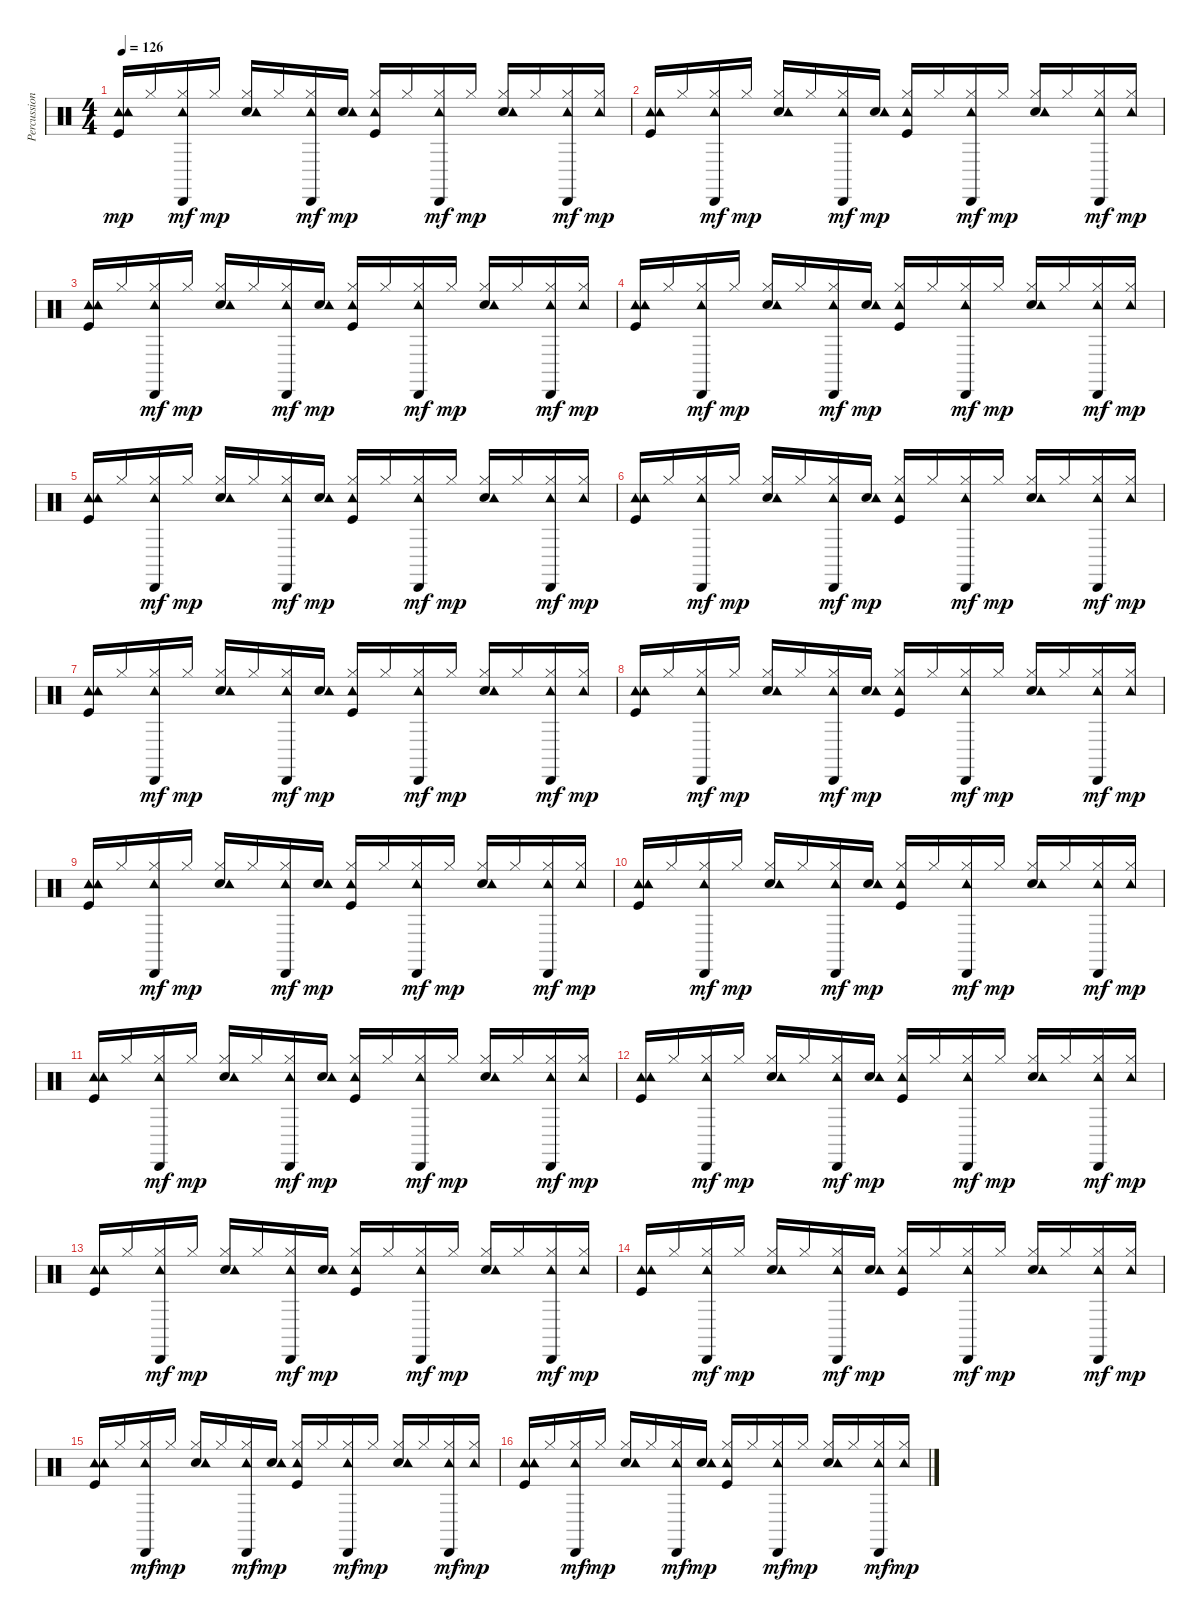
\track ("Percussion" "Percussion") {instrument percussion}
\staff {score}
\articulation defaults
\ts (4 4)
\tempo 126
\clef neutral
\ks c
("Kick (hit)" "Tambourine (hit)" "Tambourine (hit)").16{dy mp} "Hi-Hat (closed)".16 ("Hi-Hat (closed)" "Tambourine (hit)" "Cabasa (hit)").16{dy mf} "Hi-Hat (closed)".16{dy mp} ("Snare (hit) 2" "Hi-Hat (closed)" "Tambourine (hit)").16 "Hi-Hat (closed)".16 ("Hi-Hat (closed)" "Tambourine (hit)" "Cabasa (hit)").16{dy mf} ("Snare (hit) 2" "Tambourine (hit)").16{dy mp} ("Kick (hit)" "Hi-Hat (closed)" "Tambourine (hit)").16 "Hi-Hat (closed)".16 ("Hi-Hat (closed)" "Tambourine (hit)" "Cabasa (hit)").16{dy mf} "Hi-Hat (closed)".16{dy mp} ("Snare (hit) 2" "Hi-Hat (closed)" "Tambourine (hit)").16 "Hi-Hat (closed)".16 ("Hi-Hat (closed)" "Tambourine (hit)" "Cabasa (hit)").16{dy mf} ("Hi-Hat (closed)" "Tambourine (hit)").16{dy mp} |
("Kick (hit)" "Tambourine (hit)" "Tambourine (hit)").16 "Hi-Hat (closed)".16 ("Hi-Hat (closed)" "Tambourine (hit)" "Cabasa (hit)").16{dy mf} "Hi-Hat (closed)".16{dy mp} ("Snare (hit) 2" "Hi-Hat (closed)" "Tambourine (hit)").16 "Hi-Hat (closed)".16 ("Hi-Hat (closed)" "Tambourine (hit)" "Cabasa (hit)").16{dy mf} ("Snare (hit) 2" "Tambourine (hit)").16{dy mp} ("Kick (hit)" "Hi-Hat (closed)" "Tambourine (hit)").16 "Hi-Hat (closed)".16 ("Hi-Hat (closed)" "Tambourine (hit)" "Cabasa (hit)").16{dy mf} "Hi-Hat (closed)".16{dy mp} ("Snare (hit) 2" "Hi-Hat (closed)" "Tambourine (hit)").16 "Hi-Hat (closed)".16 ("Hi-Hat (closed)" "Tambourine (hit)" "Cabasa (hit)").16{dy mf} ("Hi-Hat (closed)" "Tambourine (hit)").16{dy mp} |
("Kick (hit)" "Tambourine (hit)" "Tambourine (hit)").16 "Hi-Hat (closed)".16 ("Hi-Hat (closed)" "Tambourine (hit)" "Cabasa (hit)").16{dy mf} "Hi-Hat (closed)".16{dy mp} ("Snare (hit) 2" "Hi-Hat (closed)" "Tambourine (hit)").16 "Hi-Hat (closed)".16 ("Hi-Hat (closed)" "Tambourine (hit)" "Cabasa (hit)").16{dy mf} ("Snare (hit) 2" "Tambourine (hit)").16{dy mp} ("Kick (hit)" "Hi-Hat (closed)" "Tambourine (hit)").16 "Hi-Hat (closed)".16 ("Hi-Hat (closed)" "Tambourine (hit)" "Cabasa (hit)").16{dy mf} "Hi-Hat (closed)".16{dy mp} ("Snare (hit) 2" "Hi-Hat (closed)" "Tambourine (hit)").16 "Hi-Hat (closed)".16 ("Hi-Hat (closed)" "Tambourine (hit)" "Cabasa (hit)").16{dy mf} ("Hi-Hat (closed)" "Tambourine (hit)").16{dy mp} |
("Kick (hit)" "Tambourine (hit)" "Tambourine (hit)").16 "Hi-Hat (closed)".16 ("Hi-Hat (closed)" "Tambourine (hit)" "Cabasa (hit)").16{dy mf} "Hi-Hat (closed)".16{dy mp} ("Snare (hit) 2" "Hi-Hat (closed)" "Tambourine (hit)").16 "Hi-Hat (closed)".16 ("Hi-Hat (closed)" "Tambourine (hit)" "Cabasa (hit)").16{dy mf} ("Snare (hit) 2" "Tambourine (hit)").16{dy mp} ("Kick (hit)" "Hi-Hat (closed)" "Tambourine (hit)").16 "Hi-Hat (closed)".16 ("Hi-Hat (closed)" "Tambourine (hit)" "Cabasa (hit)").16{dy mf} "Hi-Hat (closed)".16{dy mp} ("Snare (hit) 2" "Hi-Hat (closed)" "Tambourine (hit)").16 "Hi-Hat (closed)".16 ("Hi-Hat (closed)" "Tambourine (hit)" "Cabasa (hit)").16{dy mf} ("Hi-Hat (closed)" "Tambourine (hit)").16{dy mp} |
("Kick (hit)" "Tambourine (hit)" "Tambourine (hit)").16 "Hi-Hat (closed)".16 ("Hi-Hat (closed)" "Tambourine (hit)" "Cabasa (hit)").16{dy mf} "Hi-Hat (closed)".16{dy mp} ("Snare (hit) 2" "Hi-Hat (closed)" "Tambourine (hit)").16 "Hi-Hat (closed)".16 ("Hi-Hat (closed)" "Tambourine (hit)" "Cabasa (hit)").16{dy mf} ("Snare (hit) 2" "Tambourine (hit)").16{dy mp} ("Kick (hit)" "Hi-Hat (closed)" "Tambourine (hit)").16 "Hi-Hat (closed)".16 ("Hi-Hat (closed)" "Tambourine (hit)" "Cabasa (hit)").16{dy mf} "Hi-Hat (closed)".16{dy mp} ("Snare (hit) 2" "Hi-Hat (closed)" "Tambourine (hit)").16 "Hi-Hat (closed)".16 ("Hi-Hat (closed)" "Tambourine (hit)" "Cabasa (hit)").16{dy mf} ("Hi-Hat (closed)" "Tambourine (hit)").16{dy mp} |
("Kick (hit)" "Tambourine (hit)" "Tambourine (hit)").16 "Hi-Hat (closed)".16 ("Hi-Hat (closed)" "Tambourine (hit)" "Cabasa (hit)").16{dy mf} "Hi-Hat (closed)".16{dy mp} ("Snare (hit) 2" "Hi-Hat (closed)" "Tambourine (hit)").16 "Hi-Hat (closed)".16 ("Hi-Hat (closed)" "Tambourine (hit)" "Cabasa (hit)").16{dy mf} ("Snare (hit) 2" "Tambourine (hit)").16{dy mp} ("Kick (hit)" "Hi-Hat (closed)" "Tambourine (hit)").16 "Hi-Hat (closed)".16 ("Hi-Hat (closed)" "Tambourine (hit)" "Cabasa (hit)").16{dy mf} "Hi-Hat (closed)".16{dy mp} ("Snare (hit) 2" "Hi-Hat (closed)" "Tambourine (hit)").16 "Hi-Hat (closed)".16 ("Hi-Hat (closed)" "Tambourine (hit)" "Cabasa (hit)").16{dy mf} ("Hi-Hat (closed)" "Tambourine (hit)").16{dy mp} |
("Kick (hit)" "Tambourine (hit)" "Tambourine (hit)").16 "Hi-Hat (closed)".16 ("Hi-Hat (closed)" "Tambourine (hit)" "Cabasa (hit)").16{dy mf} "Hi-Hat (closed)".16{dy mp} ("Snare (hit) 2" "Hi-Hat (closed)" "Tambourine (hit)").16 "Hi-Hat (closed)".16 ("Hi-Hat (closed)" "Tambourine (hit)" "Cabasa (hit)").16{dy mf} ("Snare (hit) 2" "Tambourine (hit)").16{dy mp} ("Kick (hit)" "Hi-Hat (closed)" "Tambourine (hit)").16 "Hi-Hat (closed)".16 ("Hi-Hat (closed)" "Tambourine (hit)" "Cabasa (hit)").16{dy mf} "Hi-Hat (closed)".16{dy mp} ("Snare (hit) 2" "Hi-Hat (closed)" "Tambourine (hit)").16 "Hi-Hat (closed)".16 ("Hi-Hat (closed)" "Tambourine (hit)" "Cabasa (hit)").16{dy mf} ("Hi-Hat (closed)" "Tambourine (hit)").16{dy mp} |
("Kick (hit)" "Tambourine (hit)" "Tambourine (hit)").16 "Hi-Hat (closed)".16 ("Hi-Hat (closed)" "Tambourine (hit)" "Cabasa (hit)").16{dy mf} "Hi-Hat (closed)".16{dy mp} ("Snare (hit) 2" "Hi-Hat (closed)" "Tambourine (hit)").16 "Hi-Hat (closed)".16 ("Hi-Hat (closed)" "Tambourine (hit)" "Cabasa (hit)").16{dy mf} ("Snare (hit) 2" "Tambourine (hit)").16{dy mp} ("Kick (hit)" "Hi-Hat (closed)" "Tambourine (hit)").16 "Hi-Hat (closed)".16 ("Hi-Hat (closed)" "Tambourine (hit)" "Cabasa (hit)").16{dy mf} "Hi-Hat (closed)".16{dy mp} ("Snare (hit) 2" "Hi-Hat (closed)" "Tambourine (hit)").16 "Hi-Hat (closed)".16 ("Hi-Hat (closed)" "Tambourine (hit)" "Cabasa (hit)").16{dy mf} ("Hi-Hat (closed)" "Tambourine (hit)").16{dy mp} |
("Kick (hit)" "Tambourine (hit)" "Tambourine (hit)").16 "Hi-Hat (closed)".16 ("Hi-Hat (closed)" "Tambourine (hit)" "Cabasa (hit)").16{dy mf} "Hi-Hat (closed)".16{dy mp} ("Snare (hit) 2" "Hi-Hat (closed)" "Tambourine (hit)").16 "Hi-Hat (closed)".16 ("Hi-Hat (closed)" "Tambourine (hit)" "Cabasa (hit)").16{dy mf} ("Snare (hit) 2" "Tambourine (hit)").16{dy mp} ("Kick (hit)" "Hi-Hat (closed)" "Tambourine (hit)").16 "Hi-Hat (closed)".16 ("Hi-Hat (closed)" "Tambourine (hit)" "Cabasa (hit)").16{dy mf} "Hi-Hat (closed)".16{dy mp} ("Snare (hit) 2" "Hi-Hat (closed)" "Tambourine (hit)").16 "Hi-Hat (closed)".16 ("Hi-Hat (closed)" "Tambourine (hit)" "Cabasa (hit)").16{dy mf} ("Hi-Hat (closed)" "Tambourine (hit)").16{dy mp} |
("Kick (hit)" "Tambourine (hit)" "Tambourine (hit)").16 "Hi-Hat (closed)".16 ("Hi-Hat (closed)" "Tambourine (hit)" "Cabasa (hit)").16{dy mf} "Hi-Hat (closed)".16{dy mp} ("Snare (hit) 2" "Hi-Hat (closed)" "Tambourine (hit)").16 "Hi-Hat (closed)".16 ("Hi-Hat (closed)" "Tambourine (hit)" "Cabasa (hit)").16{dy mf} ("Snare (hit) 2" "Tambourine (hit)").16{dy mp} ("Kick (hit)" "Hi-Hat (closed)" "Tambourine (hit)").16 "Hi-Hat (closed)".16 ("Hi-Hat (closed)" "Tambourine (hit)" "Cabasa (hit)").16{dy mf} "Hi-Hat (closed)".16{dy mp} ("Snare (hit) 2" "Hi-Hat (closed)" "Tambourine (hit)").16 "Hi-Hat (closed)".16 ("Hi-Hat (closed)" "Tambourine (hit)" "Cabasa (hit)").16{dy mf} ("Hi-Hat (closed)" "Tambourine (hit)").16{dy mp} |
("Kick (hit)" "Tambourine (hit)" "Tambourine (hit)").16 "Hi-Hat (closed)".16 ("Hi-Hat (closed)" "Tambourine (hit)" "Cabasa (hit)").16{dy mf} "Hi-Hat (closed)".16{dy mp} ("Snare (hit) 2" "Hi-Hat (closed)" "Tambourine (hit)").16 "Hi-Hat (closed)".16 ("Hi-Hat (closed)" "Tambourine (hit)" "Cabasa (hit)").16{dy mf} ("Snare (hit) 2" "Tambourine (hit)").16{dy mp} ("Kick (hit)" "Hi-Hat (closed)" "Tambourine (hit)").16 "Hi-Hat (closed)".16 ("Hi-Hat (closed)" "Tambourine (hit)" "Cabasa (hit)").16{dy mf} "Hi-Hat (closed)".16{dy mp} ("Snare (hit) 2" "Hi-Hat (closed)" "Tambourine (hit)").16 "Hi-Hat (closed)".16 ("Hi-Hat (closed)" "Tambourine (hit)" "Cabasa (hit)").16{dy mf} ("Hi-Hat (closed)" "Tambourine (hit)").16{dy mp} |
("Kick (hit)" "Tambourine (hit)" "Tambourine (hit)").16 "Hi-Hat (closed)".16 ("Hi-Hat (closed)" "Tambourine (hit)" "Cabasa (hit)").16{dy mf} "Hi-Hat (closed)".16{dy mp} ("Snare (hit) 2" "Hi-Hat (closed)" "Tambourine (hit)").16 "Hi-Hat (closed)".16 ("Hi-Hat (closed)" "Tambourine (hit)" "Cabasa (hit)").16{dy mf} ("Snare (hit) 2" "Tambourine (hit)").16{dy mp} ("Kick (hit)" "Hi-Hat (closed)" "Tambourine (hit)").16 "Hi-Hat (closed)".16 ("Hi-Hat (closed)" "Tambourine (hit)" "Cabasa (hit)").16{dy mf} "Hi-Hat (closed)".16{dy mp} ("Snare (hit) 2" "Hi-Hat (closed)" "Tambourine (hit)").16 "Hi-Hat (closed)".16 ("Hi-Hat (closed)" "Tambourine (hit)" "Cabasa (hit)").16{dy mf} ("Hi-Hat (closed)" "Tambourine (hit)").16{dy mp} |
("Kick (hit)" "Tambourine (hit)" "Tambourine (hit)").16 "Hi-Hat (closed)".16 ("Hi-Hat (closed)" "Tambourine (hit)" "Cabasa (hit)").16{dy mf} "Hi-Hat (closed)".16{dy mp} ("Snare (hit) 2" "Hi-Hat (closed)" "Tambourine (hit)").16 "Hi-Hat (closed)".16 ("Hi-Hat (closed)" "Tambourine (hit)" "Cabasa (hit)").16{dy mf} ("Snare (hit) 2" "Tambourine (hit)").16{dy mp} ("Kick (hit)" "Hi-Hat (closed)" "Tambourine (hit)").16 "Hi-Hat (closed)".16 ("Hi-Hat (closed)" "Tambourine (hit)" "Cabasa (hit)").16{dy mf} "Hi-Hat (closed)".16{dy mp} ("Snare (hit) 2" "Hi-Hat (closed)" "Tambourine (hit)").16 "Hi-Hat (closed)".16 ("Hi-Hat (closed)" "Tambourine (hit)" "Cabasa (hit)").16{dy mf} ("Hi-Hat (closed)" "Tambourine (hit)").16{dy mp} |
("Kick (hit)" "Tambourine (hit)" "Tambourine (hit)").16 "Hi-Hat (closed)".16 ("Hi-Hat (closed)" "Tambourine (hit)" "Cabasa (hit)").16{dy mf} "Hi-Hat (closed)".16{dy mp} ("Snare (hit) 2" "Hi-Hat (closed)" "Tambourine (hit)").16 "Hi-Hat (closed)".16 ("Hi-Hat (closed)" "Tambourine (hit)" "Cabasa (hit)").16{dy mf} ("Snare (hit) 2" "Tambourine (hit)").16{dy mp} ("Kick (hit)" "Hi-Hat (closed)" "Tambourine (hit)").16 "Hi-Hat (closed)".16 ("Hi-Hat (closed)" "Tambourine (hit)" "Cabasa (hit)").16{dy mf} "Hi-Hat (closed)".16{dy mp} ("Snare (hit) 2" "Hi-Hat (closed)" "Tambourine (hit)").16 "Hi-Hat (closed)".16 ("Hi-Hat (closed)" "Tambourine (hit)" "Cabasa (hit)").16{dy mf} ("Hi-Hat (closed)" "Tambourine (hit)").16{dy mp} |
("Kick (hit)" "Tambourine (hit)" "Tambourine (hit)").16 "Hi-Hat (closed)".16 ("Hi-Hat (closed)" "Tambourine (hit)" "Cabasa (hit)").16{dy mf} "Hi-Hat (closed)".16{dy mp} ("Snare (hit) 2" "Hi-Hat (closed)" "Tambourine (hit)").16 "Hi-Hat (closed)".16 ("Hi-Hat (closed)" "Tambourine (hit)" "Cabasa (hit)").16{dy mf} ("Snare (hit) 2" "Tambourine (hit)").16{dy mp} ("Kick (hit)" "Hi-Hat (closed)" "Tambourine (hit)").16 "Hi-Hat (closed)".16 ("Hi-Hat (closed)" "Tambourine (hit)" "Cabasa (hit)").16{dy mf} "Hi-Hat (closed)".16{dy mp} ("Snare (hit) 2" "Hi-Hat (closed)" "Tambourine (hit)").16 "Hi-Hat (closed)".16 ("Hi-Hat (closed)" "Tambourine (hit)" "Cabasa (hit)").16{dy mf} ("Hi-Hat (closed)" "Tambourine (hit)").16{dy mp} |
("Kick (hit)" "Tambourine (hit)" "Tambourine (hit)").16 "Hi-Hat (closed)".16 ("Hi-Hat (closed)" "Tambourine (hit)" "Cabasa (hit)").16{dy mf} "Hi-Hat (closed)".16{dy mp} ("Snare (hit) 2" "Hi-Hat (closed)" "Tambourine (hit)").16 "Hi-Hat (closed)".16 ("Hi-Hat (closed)" "Tambourine (hit)" "Cabasa (hit)").16{dy mf} ("Snare (hit) 2" "Tambourine (hit)").16{dy mp} ("Kick (hit)" "Hi-Hat (closed)" "Tambourine (hit)").16 "Hi-Hat (closed)".16 ("Hi-Hat (closed)" "Tambourine (hit)" "Cabasa (hit)").16{dy mf} "Hi-Hat (closed)".16{dy mp} ("Snare (hit) 2" "Hi-Hat (closed)" "Tambourine (hit)").16 "Hi-Hat (closed)".16 ("Hi-Hat (closed)" "Tambourine (hit)" "Cabasa (hit)").16{dy mf} ("Hi-Hat (closed)" "Tambourine (hit)").16{dy mp}
